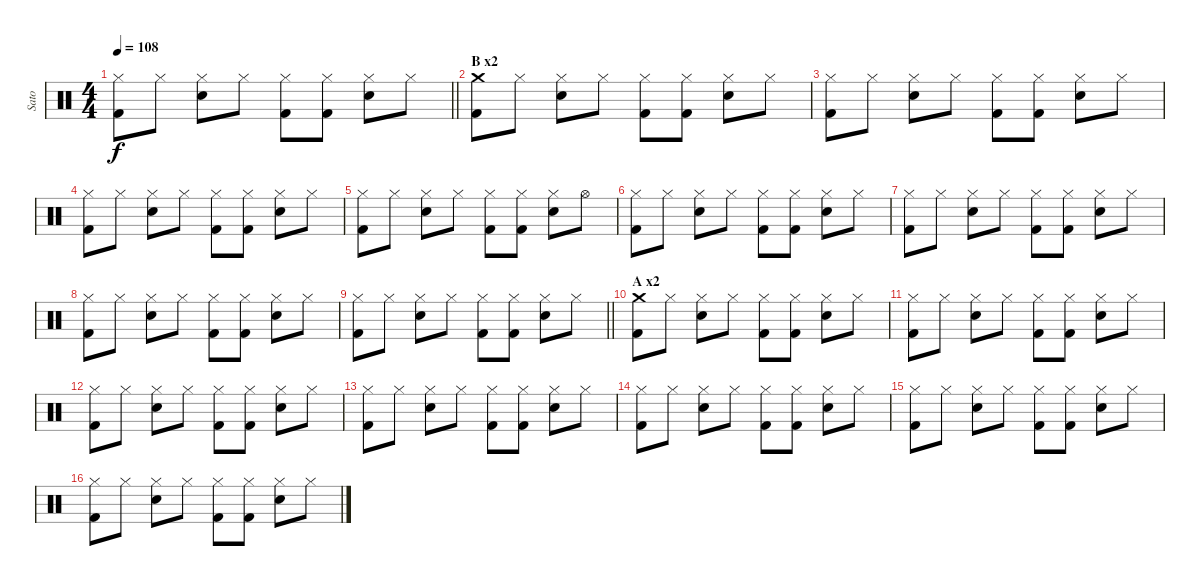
\track ("Sato" "Sato") {instrument percussion}
\staff {score}
\articulation defaults
\ts (4 4)
\tempo 108
\clef neutral
\barLineRight lightlight
\ks c
("Hi-Hat (closed)" "Kick (hit) 2").8{dy f} "Hi-Hat (closed)".8 ("Hi-Hat (closed)" "Electric Snare (hit)").8 "Hi-Hat (closed)".8 ("Hi-Hat (closed)" "Kick (hit) 2").8 ("Hi-Hat (closed)" "Kick (hit) 2").8 ("Hi-Hat (closed)" "Electric Snare (hit)").8 "Hi-Hat (closed)".8 |
\section ("" "B x2")
("Crash medium (hit)" "Kick (hit) 2").8 "Hi-Hat (closed)".8 ("Hi-Hat (closed)" "Electric Snare (hit)").8 "Hi-Hat (closed)".8 ("Hi-Hat (closed)" "Kick (hit) 2").8 ("Hi-Hat (closed)" "Kick (hit) 2").8 ("Hi-Hat (closed)" "Electric Snare (hit)").8 "Hi-Hat (closed)".8 |
("Hi-Hat (closed)" "Kick (hit) 2").8 "Hi-Hat (closed)".8 ("Hi-Hat (closed)" "Electric Snare (hit)").8 "Hi-Hat (closed)".8 ("Hi-Hat (closed)" "Kick (hit) 2").8 ("Hi-Hat (closed)" "Kick (hit) 2").8 ("Hi-Hat (closed)" "Electric Snare (hit)").8 "Hi-Hat (closed)".8 |
("Hi-Hat (closed)" "Kick (hit) 2").8 "Hi-Hat (closed)".8 ("Hi-Hat (closed)" "Electric Snare (hit)").8 "Hi-Hat (closed)".8 ("Hi-Hat (closed)" "Kick (hit) 2").8 ("Hi-Hat (closed)" "Kick (hit) 2").8 ("Hi-Hat (closed)" "Electric Snare (hit)").8 "Hi-Hat (closed)".8 |
("Hi-Hat (closed)" "Kick (hit) 2").8 "Hi-Hat (closed)".8 ("Hi-Hat (closed)" "Electric Snare (hit)").8 "Hi-Hat (closed)".8 ("Hi-Hat (closed)" "Kick (hit) 2").8 ("Hi-Hat (closed)" "Kick (hit) 2").8 ("Hi-Hat (closed)" "Electric Snare (hit)").8 "Hi-Hat (open)".8 |
("Hi-Hat (closed)" "Kick (hit) 2").8 "Hi-Hat (closed)".8 ("Hi-Hat (closed)" "Electric Snare (hit)").8 "Hi-Hat (closed)".8 ("Hi-Hat (closed)" "Kick (hit) 2").8 ("Hi-Hat (closed)" "Kick (hit) 2").8 ("Hi-Hat (closed)" "Electric Snare (hit)").8 "Hi-Hat (closed)".8 |
("Hi-Hat (closed)" "Kick (hit) 2").8 "Hi-Hat (closed)".8 ("Hi-Hat (closed)" "Electric Snare (hit)").8 "Hi-Hat (closed)".8 ("Hi-Hat (closed)" "Kick (hit) 2").8 ("Hi-Hat (closed)" "Kick (hit) 2").8 ("Hi-Hat (closed)" "Electric Snare (hit)").8 "Hi-Hat (closed)".8 |
("Hi-Hat (closed)" "Kick (hit) 2").8 "Hi-Hat (closed)".8 ("Hi-Hat (closed)" "Electric Snare (hit)").8 "Hi-Hat (closed)".8 ("Hi-Hat (closed)" "Kick (hit) 2").8 ("Hi-Hat (closed)" "Kick (hit) 2").8 ("Hi-Hat (closed)" "Electric Snare (hit)").8 "Hi-Hat (closed)".8 |
\barLineRight lightlight
("Hi-Hat (closed)" "Kick (hit) 2").8 "Hi-Hat (closed)".8 ("Hi-Hat (closed)" "Electric Snare (hit)").8 "Hi-Hat (closed)".8 ("Hi-Hat (closed)" "Kick (hit) 2").8 ("Hi-Hat (closed)" "Kick (hit) 2").8 ("Hi-Hat (closed)" "Electric Snare (hit)").8 "Hi-Hat (closed)".8 |
\section ("" "A x2")
("Crash medium (hit)" "Kick (hit) 2").8 "Hi-Hat (closed)".8 ("Hi-Hat (closed)" "Electric Snare (hit)").8 "Hi-Hat (closed)".8 ("Hi-Hat (closed)" "Kick (hit) 2").8 ("Hi-Hat (closed)" "Kick (hit) 2").8 ("Hi-Hat (closed)" "Electric Snare (hit)").8 "Hi-Hat (closed)".8 |
("Hi-Hat (closed)" "Kick (hit) 2").8 "Hi-Hat (closed)".8 ("Hi-Hat (closed)" "Electric Snare (hit)").8 "Hi-Hat (closed)".8 ("Hi-Hat (closed)" "Kick (hit) 2").8 ("Hi-Hat (closed)" "Kick (hit) 2").8 ("Hi-Hat (closed)" "Electric Snare (hit)").8 "Hi-Hat (closed)".8 |
("Hi-Hat (closed)" "Kick (hit) 2").8 "Hi-Hat (closed)".8 ("Hi-Hat (closed)" "Electric Snare (hit)").8 "Hi-Hat (closed)".8 ("Hi-Hat (closed)" "Kick (hit) 2").8 ("Hi-Hat (closed)" "Kick (hit) 2").8 ("Hi-Hat (closed)" "Electric Snare (hit)").8 "Hi-Hat (closed)".8 |
("Hi-Hat (closed)" "Kick (hit) 2").8 "Hi-Hat (closed)".8 ("Hi-Hat (closed)" "Electric Snare (hit)").8 "Hi-Hat (closed)".8 ("Hi-Hat (closed)" "Kick (hit) 2").8 ("Hi-Hat (closed)" "Kick (hit) 2").8 ("Hi-Hat (closed)" "Electric Snare (hit)").8 "Hi-Hat (closed)".8 |
("Hi-Hat (closed)" "Kick (hit) 2").8 "Hi-Hat (closed)".8 ("Hi-Hat (closed)" "Electric Snare (hit)").8 "Hi-Hat (closed)".8 ("Hi-Hat (closed)" "Kick (hit) 2").8 ("Hi-Hat (closed)" "Kick (hit) 2").8 ("Hi-Hat (closed)" "Electric Snare (hit)").8 "Hi-Hat (closed)".8 |
("Hi-Hat (closed)" "Kick (hit) 2").8 "Hi-Hat (closed)".8 ("Hi-Hat (closed)" "Electric Snare (hit)").8 "Hi-Hat (closed)".8 ("Hi-Hat (closed)" "Kick (hit) 2").8 ("Hi-Hat (closed)" "Kick (hit) 2").8 ("Hi-Hat (closed)" "Electric Snare (hit)").8 "Hi-Hat (closed)".8 |
("Hi-Hat (closed)" "Kick (hit) 2").8 "Hi-Hat (closed)".8 ("Hi-Hat (closed)" "Electric Snare (hit)").8 "Hi-Hat (closed)".8 ("Hi-Hat (closed)" "Kick (hit) 2").8 ("Hi-Hat (closed)" "Kick (hit) 2").8 ("Hi-Hat (closed)" "Electric Snare (hit)").8 "Hi-Hat (closed)".8
